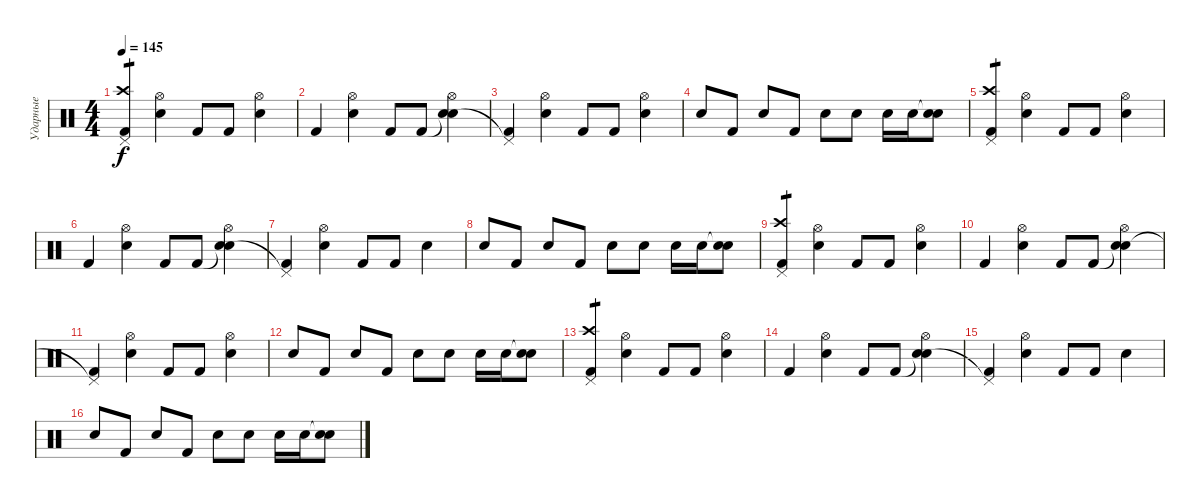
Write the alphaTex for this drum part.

\track ("Ударные" "Ударные") {instrument percussion}
\staff {score}
\articulation defaults
\ts (4 4)
\tempo 145
\clef neutral
\ks c
("Pedal Hi-Hat (hit)" "Crash high (hit)" "Kick (hit) 2").4{tp 1 dy f} ("Hi-Hat (open)" "Snare (hit) 2").4 "Kick (hit) 2".8 "Kick (hit) 2".8 ("Hi-Hat (open)" "Snare (hit) 2").4 |
"Kick (hit) 2".4 ("Hi-Hat (open)" "Snare (hit) 2").4 "Kick (hit) 2".8 "Kick (hit) 2".8 ("Snare (hit)"{t} "Hi-Hat (open)" "Snare (hit) 2").4 |
("Pedal Hi-Hat (hit)"{t} "Kick (hit) 2").4 ("Hi-Hat (open)" "Snare (hit) 2").4 "Kick (hit) 2".8 "Kick (hit) 2".8 ("Hi-Hat (open)" "Snare (hit) 2").4 |
"Snare (hit) 2".8 "Kick (hit) 2".8 "Snare (hit) 2".8 "Kick (hit) 2".8 "Snare (hit) 2".8 "Snare (hit) 2".8 "Snare (hit) 2".16 "Snare (hit) 2".16 ("Snare (hit)"{t} "Snare (hit) 2").8 |
("Pedal Hi-Hat (hit)" "Crash high (hit)" "Kick (hit) 2").4{tp 1} ("Hi-Hat (open)" "Snare (hit) 2").4 "Kick (hit) 2".8 "Kick (hit) 2".8 ("Hi-Hat (open)" "Snare (hit) 2").4 |
"Kick (hit) 2".4 ("Hi-Hat (open)" "Snare (hit) 2").4 "Kick (hit) 2".8 "Kick (hit) 2".8 ("Snare (hit)"{t} "Hi-Hat (open)" "Snare (hit) 2").4 |
("Pedal Hi-Hat (hit)"{t} "Kick (hit) 2").4 ("Hi-Hat (open)" "Snare (hit) 2").4 "Kick (hit) 2".8 "Kick (hit) 2".8 "Snare (hit) 2".4 |
"Snare (hit) 2".8 "Kick (hit) 2".8 "Snare (hit) 2".8 "Kick (hit) 2".8 "Snare (hit) 2".8 "Snare (hit) 2".8 "Snare (hit) 2".16 "Snare (hit) 2".16 ("Snare (hit)"{t} "Snare (hit) 2").8 |
("Pedal Hi-Hat (hit)" "Crash high (hit)" "Kick (hit) 2").4{tp 1} ("Hi-Hat (open)" "Snare (hit) 2").4 "Kick (hit) 2".8 "Kick (hit) 2".8 ("Hi-Hat (open)" "Snare (hit) 2").4 |
"Kick (hit) 2".4 ("Hi-Hat (open)" "Snare (hit) 2").4 "Kick (hit) 2".8 "Kick (hit) 2".8 ("Snare (hit)"{t} "Hi-Hat (open)" "Snare (hit) 2").4 |
("Pedal Hi-Hat (hit)"{t} "Kick (hit) 2").4 ("Hi-Hat (open)" "Snare (hit) 2").4 "Kick (hit) 2".8 "Kick (hit) 2".8 ("Hi-Hat (open)" "Snare (hit) 2").4 |
"Snare (hit) 2".8 "Kick (hit) 2".8 "Snare (hit) 2".8 "Kick (hit) 2".8 "Snare (hit) 2".8 "Snare (hit) 2".8 "Snare (hit) 2".16 "Snare (hit) 2".16 ("Snare (hit)"{t} "Snare (hit) 2").8 |
("Pedal Hi-Hat (hit)" "Crash high (hit)" "Kick (hit) 2").4{tp 1} ("Hi-Hat (open)" "Snare (hit) 2").4 "Kick (hit) 2".8 "Kick (hit) 2".8 ("Hi-Hat (open)" "Snare (hit) 2").4 |
"Kick (hit) 2".4 ("Hi-Hat (open)" "Snare (hit) 2").4 "Kick (hit) 2".8 "Kick (hit) 2".8 ("Snare (hit)"{t} "Hi-Hat (open)" "Snare (hit) 2").4 |
("Pedal Hi-Hat (hit)"{t} "Kick (hit) 2").4 ("Hi-Hat (open)" "Snare (hit) 2").4 "Kick (hit) 2".8 "Kick (hit) 2".8 "Snare (hit) 2".4 |
"Snare (hit) 2".8 "Kick (hit) 2".8 "Snare (hit) 2".8 "Kick (hit) 2".8 "Snare (hit) 2".8 "Snare (hit) 2".8 "Snare (hit) 2".16 "Snare (hit) 2".16 ("Snare (hit)"{t} "Snare (hit) 2").8
